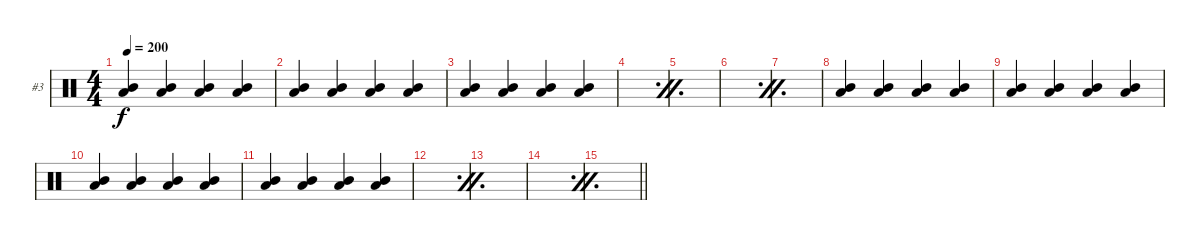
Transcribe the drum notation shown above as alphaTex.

\bracketExtendMode groupsimilarinstruments
\firstSystemTrackNameOrientation horizontal
\otherSystemsTrackNameOrientation horizontal
\track ("Chris Fehn" "#3") {instrument percussion}
\staff {score}
\articulation defaults
\ts (4 4)
\tempo 200
\clef neutral
\ks c
("Low Tom (hit)" "Mid Tom (hit)").4{dy f} ("Low Tom (hit)" "Mid Tom (hit)").4 ("Low Tom (hit)" "Mid Tom (hit)").4 ("Low Tom (hit)" "Mid Tom (hit)").4 |
("Low Tom (hit)" "Mid Tom (hit)").4 ("Low Tom (hit)" "Mid Tom (hit)").4 ("Low Tom (hit)" "Mid Tom (hit)").4 ("Low Tom (hit)" "Mid Tom (hit)").4 |
("Low Tom (hit)" "Mid Tom (hit)").4 ("Low Tom (hit)" "Mid Tom (hit)").4 ("Low Tom (hit)" "Mid Tom (hit)").4 ("Low Tom (hit)" "Mid Tom (hit)").4 |
\simile firstofdouble
|
\simile secondofdouble
|
\simile firstofdouble
|
\simile secondofdouble
|
\simile none
("Low Tom (hit)" "Mid Tom (hit)").4 ("Low Tom (hit)" "Mid Tom (hit)").4 ("Low Tom (hit)" "Mid Tom (hit)").4 ("Low Tom (hit)" "Mid Tom (hit)").4 |
("Low Tom (hit)" "Mid Tom (hit)").4 ("Low Tom (hit)" "Mid Tom (hit)").4 ("Low Tom (hit)" "Mid Tom (hit)").4 ("Low Tom (hit)" "Mid Tom (hit)").4 |
("Low Tom (hit)" "Mid Tom (hit)").4 ("Low Tom (hit)" "Mid Tom (hit)").4 ("Low Tom (hit)" "Mid Tom (hit)").4 ("Low Tom (hit)" "Mid Tom (hit)").4 |
("Low Tom (hit)" "Mid Tom (hit)").4 ("Low Tom (hit)" "Mid Tom (hit)").4 ("Low Tom (hit)" "Mid Tom (hit)").4 ("Low Tom (hit)" "Mid Tom (hit)").4 |
\simile firstofdouble
|
\simile secondofdouble
|
\simile firstofdouble
|
\simile secondofdouble
\barLineRight lightlight
|
\simile none
